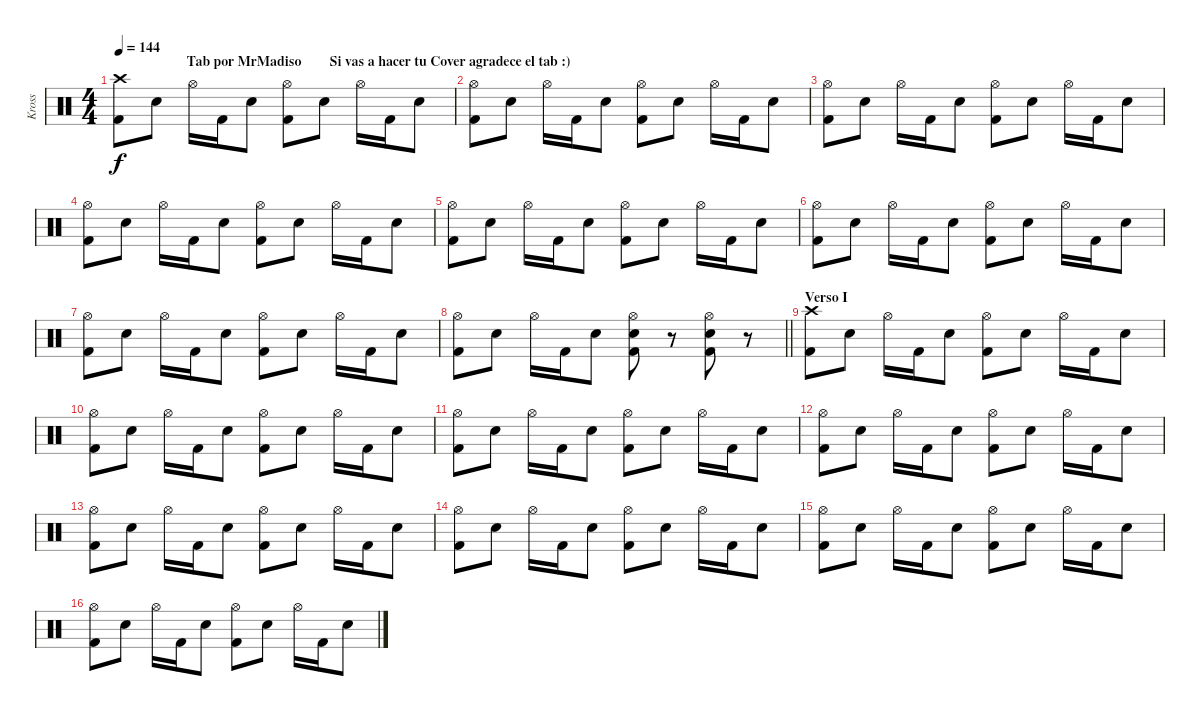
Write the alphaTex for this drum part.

\track ("Kross" "Kross") {instrument percussion}
\staff {score}
\articulation defaults
\ts (4 4)
\section ("" "                     Tab por MrMadiso        Si vas a hacer tu Cover agradece el tab :)")
\tempo 144
\clef neutral
\ks c
("Crash high (hit)" "Kick (hit) 2").8{dy f} "Electric Snare (hit)".8 "Hi-Hat (open)".16 "Kick (hit) 2".16 "Electric Snare (hit)".8 ("Hi-Hat (open)" "Kick (hit) 2").8 "Electric Snare (hit)".8 "Hi-Hat (open)".16 "Kick (hit) 2".16 "Electric Snare (hit)".8 |
("Hi-Hat (open)" "Kick (hit) 2").8 "Electric Snare (hit)".8 "Hi-Hat (open)".16 "Kick (hit) 2".16 "Electric Snare (hit)".8 ("Hi-Hat (open)" "Kick (hit) 2").8 "Electric Snare (hit)".8 "Hi-Hat (open)".16 "Kick (hit) 2".16 "Electric Snare (hit)".8 |
("Hi-Hat (open)" "Kick (hit) 2").8 "Electric Snare (hit)".8 "Hi-Hat (open)".16 "Kick (hit) 2".16 "Electric Snare (hit)".8 ("Hi-Hat (open)" "Kick (hit) 2").8 "Electric Snare (hit)".8 "Hi-Hat (open)".16 "Kick (hit) 2".16 "Electric Snare (hit)".8 |
("Hi-Hat (open)" "Kick (hit) 2").8 "Electric Snare (hit)".8 "Hi-Hat (open)".16 "Kick (hit) 2".16 "Electric Snare (hit)".8 ("Hi-Hat (open)" "Kick (hit) 2").8 "Electric Snare (hit)".8 "Hi-Hat (open)".16 "Kick (hit) 2".16 "Electric Snare (hit)".8 |
("Hi-Hat (open)" "Kick (hit) 2").8 "Electric Snare (hit)".8 "Hi-Hat (open)".16 "Kick (hit) 2".16 "Electric Snare (hit)".8 ("Hi-Hat (open)" "Kick (hit) 2").8 "Electric Snare (hit)".8 "Hi-Hat (open)".16 "Kick (hit) 2".16 "Electric Snare (hit)".8 |
("Hi-Hat (open)" "Kick (hit) 2").8 "Electric Snare (hit)".8 "Hi-Hat (open)".16 "Kick (hit) 2".16 "Electric Snare (hit)".8 ("Hi-Hat (open)" "Kick (hit) 2").8 "Electric Snare (hit)".8 "Hi-Hat (open)".16 "Kick (hit) 2".16 "Electric Snare (hit)".8 |
("Hi-Hat (open)" "Kick (hit) 2").8 "Electric Snare (hit)".8 "Hi-Hat (open)".16 "Kick (hit) 2".16 "Electric Snare (hit)".8 ("Hi-Hat (open)" "Kick (hit) 2").8 "Electric Snare (hit)".8 "Hi-Hat (open)".16 "Kick (hit) 2".16 "Electric Snare (hit)".8 |
\barLineRight lightlight
("Hi-Hat (open)" "Kick (hit) 2").8 "Electric Snare (hit)".8 "Hi-Hat (open)".16 "Kick (hit) 2".16 "Electric Snare (hit)".8 ("Hi-Hat (open)" "Electric Snare (hit)" "Kick (hit) 2").8 r.8 ("Hi-Hat (open)" "Electric Snare (hit)" "Kick (hit) 2").8 r.8 |
\section ("" "Verso I")
("Crash high (hit)" "Kick (hit) 2").8 "Electric Snare (hit)".8 "Hi-Hat (open)".16 "Kick (hit) 2".16 "Electric Snare (hit)".8 ("Hi-Hat (open)" "Kick (hit) 2").8 "Electric Snare (hit)".8 "Hi-Hat (open)".16 "Kick (hit) 2".16 "Electric Snare (hit)".8 |
("Hi-Hat (open)" "Kick (hit) 2").8 "Electric Snare (hit)".8 "Hi-Hat (open)".16 "Kick (hit) 2".16 "Electric Snare (hit)".8 ("Hi-Hat (open)" "Kick (hit) 2").8 "Electric Snare (hit)".8 "Hi-Hat (open)".16 "Kick (hit) 2".16 "Electric Snare (hit)".8 |
("Hi-Hat (open)" "Kick (hit) 2").8 "Electric Snare (hit)".8 "Hi-Hat (open)".16 "Kick (hit) 2".16 "Electric Snare (hit)".8 ("Hi-Hat (open)" "Kick (hit) 2").8 "Electric Snare (hit)".8 "Hi-Hat (open)".16 "Kick (hit) 2".16 "Electric Snare (hit)".8 |
("Hi-Hat (open)" "Kick (hit) 2").8 "Electric Snare (hit)".8 "Hi-Hat (open)".16 "Kick (hit) 2".16 "Electric Snare (hit)".8 ("Hi-Hat (open)" "Kick (hit) 2").8 "Electric Snare (hit)".8 "Hi-Hat (open)".16 "Kick (hit) 2".16 "Electric Snare (hit)".8 |
("Hi-Hat (open)" "Kick (hit) 2").8 "Electric Snare (hit)".8 "Hi-Hat (open)".16 "Kick (hit) 2".16 "Electric Snare (hit)".8 ("Hi-Hat (open)" "Kick (hit) 2").8 "Electric Snare (hit)".8 "Hi-Hat (open)".16 "Kick (hit) 2".16 "Electric Snare (hit)".8 |
("Hi-Hat (open)" "Kick (hit) 2").8 "Electric Snare (hit)".8 "Hi-Hat (open)".16 "Kick (hit) 2".16 "Electric Snare (hit)".8 ("Hi-Hat (open)" "Kick (hit) 2").8 "Electric Snare (hit)".8 "Hi-Hat (open)".16 "Kick (hit) 2".16 "Electric Snare (hit)".8 |
("Hi-Hat (open)" "Kick (hit) 2").8 "Electric Snare (hit)".8 "Hi-Hat (open)".16 "Kick (hit) 2".16 "Electric Snare (hit)".8 ("Hi-Hat (open)" "Kick (hit) 2").8 "Electric Snare (hit)".8 "Hi-Hat (open)".16 "Kick (hit) 2".16 "Electric Snare (hit)".8 |
("Hi-Hat (open)" "Kick (hit) 2").8 "Electric Snare (hit)".8 "Hi-Hat (open)".16 "Kick (hit) 2".16 "Electric Snare (hit)".8 ("Hi-Hat (open)" "Kick (hit) 2").8 "Electric Snare (hit)".8 "Hi-Hat (open)".16 "Kick (hit) 2".16 "Electric Snare (hit)".8
